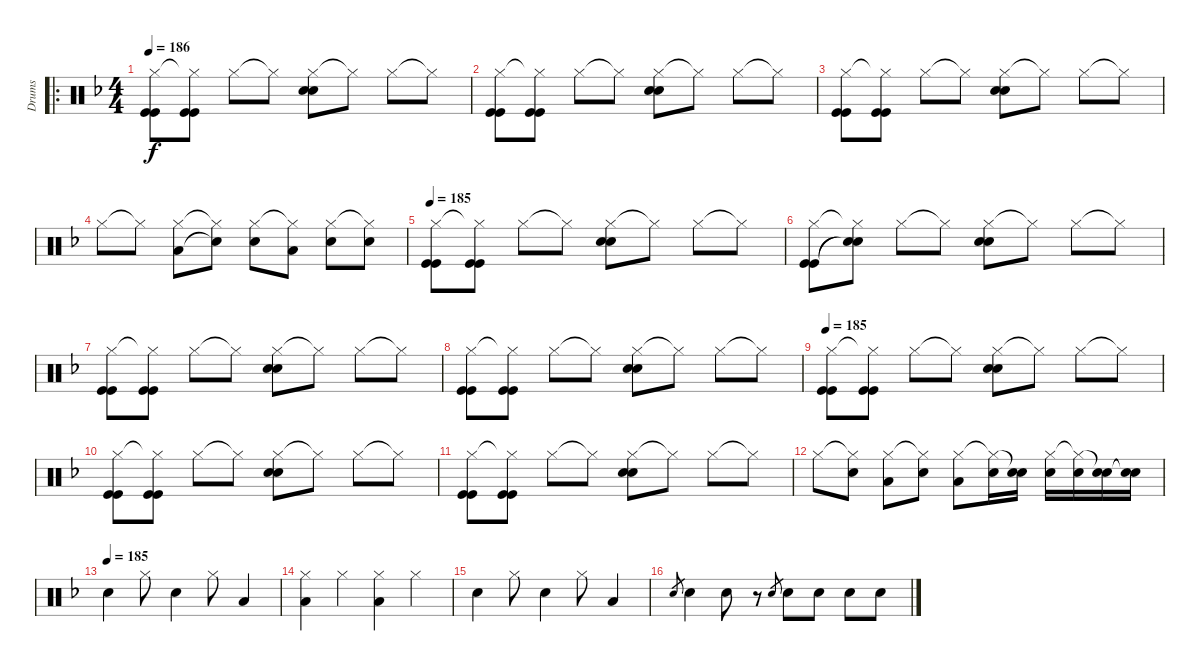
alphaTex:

\track ("Drums" "Drums") {instrument percussion}
\staff {score}
\articulation defaults
\ro
\ts (4 4)
\tempo 186
\clef neutral
\ks f
("Hi-Hat (closed)" "Kick (hit)" "Kick (hit)").8{dy f} ("Hi-Hat (closed)"{t} "Kick (hit)" "Kick (hit)").8 "Hi-Hat (closed)".8 "Hi-Hat (closed)"{t}.8 ("Hi-Hat (closed)" "Snare (hit) 2" "Snare (hit) 2").8 "Hi-Hat (closed)"{t}.8 "Hi-Hat (closed)".8 "Hi-Hat (closed)"{t}.8 |
("Hi-Hat (closed)" "Kick (hit)" "Kick (hit)").8 ("Hi-Hat (closed)"{t} "Kick (hit)" "Kick (hit)").8 "Hi-Hat (closed)".8 "Hi-Hat (closed)"{t}.8 ("Hi-Hat (closed)" "Snare (hit) 2" "Snare (hit) 2").8 "Hi-Hat (closed)"{t}.8 "Hi-Hat (closed)".8 "Hi-Hat (closed)"{t}.8 |
("Hi-Hat (closed)" "Kick (hit)" "Kick (hit)").8 ("Hi-Hat (closed)"{t} "Kick (hit)" "Kick (hit)").8 "Hi-Hat (closed)".8 "Hi-Hat (closed)"{t}.8 ("Hi-Hat (closed)" "Snare (hit) 2" "Snare (hit) 2").8 "Hi-Hat (closed)"{t}.8 "Hi-Hat (closed)".8 "Hi-Hat (closed)"{t}.8 |
"Hi-Hat (closed)".8 "Hi-Hat (closed)"{t}.8 ("Hi-Hat (closed)" "Low Floor Tom (hit)").8 ("Hi-Hat (closed)"{t} "Snare (hit)"{t}).8 ("Hi-Hat (closed)" "Snare (hit) 2").8 ("Hi-Hat (closed)"{t} "Low Floor Tom (hit)").8 ("Hi-Hat (closed)" "Electric Snare (hit)").8 ("Hi-Hat (closed)"{t} "Electric Snare (hit)").8 |
\tempo 185
("Hi-Hat (closed)" "Kick (hit)" "Kick (hit)").8 ("Hi-Hat (closed)"{t} "Kick (hit)" "Kick (hit)").8 "Hi-Hat (closed)".8 "Hi-Hat (closed)"{t}.8 ("Hi-Hat (closed)" "Snare (hit) 2" "Snare (hit) 2").8 "Hi-Hat (closed)"{t}.8 "Hi-Hat (closed)".8 "Hi-Hat (closed)"{t}.8 |
("Hi-Hat (closed)" "Kick (hit)" "Kick (hit)").8 ("Hi-Hat (closed)"{t} "Snare (hit)"{t} "Snare (hit)"{t}).8 "Hi-Hat (closed)".8 "Hi-Hat (closed)"{t}.8 ("Hi-Hat (closed)" "Snare (hit) 2" "Snare (hit) 2").8 "Hi-Hat (closed)"{t}.8 "Hi-Hat (closed)".8 "Hi-Hat (closed)"{t}.8 |
("Hi-Hat (closed)" "Kick (hit)" "Kick (hit)").8 ("Hi-Hat (closed)"{t} "Kick (hit)" "Kick (hit)").8 "Hi-Hat (closed)".8 "Hi-Hat (closed)"{t}.8 ("Hi-Hat (closed)" "Snare (hit) 2" "Snare (hit) 2").8 "Hi-Hat (closed)"{t}.8 "Hi-Hat (closed)".8 "Hi-Hat (closed)"{t}.8 |
("Hi-Hat (closed)" "Kick (hit)" "Kick (hit)").8 ("Hi-Hat (closed)"{t} "Kick (hit)" "Kick (hit)").8 "Hi-Hat (closed)".8 "Hi-Hat (closed)"{t}.8 ("Hi-Hat (closed)" "Snare (hit) 2" "Snare (hit) 2").8 "Hi-Hat (closed)"{t}.8 "Hi-Hat (closed)".8 "Hi-Hat (closed)"{t}.8 |
\tempo 185
("Hi-Hat (closed)" "Kick (hit)" "Kick (hit)").8 ("Hi-Hat (closed)"{t} "Kick (hit)" "Kick (hit)").8 "Hi-Hat (closed)".8 "Hi-Hat (closed)"{t}.8 ("Hi-Hat (closed)" "Snare (hit) 2" "Snare (hit) 2").8 "Hi-Hat (closed)"{t}.8 "Hi-Hat (closed)".8 "Hi-Hat (closed)"{t}.8 |
("Hi-Hat (closed)" "Kick (hit)" "Kick (hit)").8 ("Hi-Hat (closed)"{t} "Kick (hit)" "Kick (hit)").8 "Hi-Hat (closed)".8 "Hi-Hat (closed)"{t}.8 ("Hi-Hat (closed)" "Snare (hit) 2" "Snare (hit) 2").8 "Hi-Hat (closed)"{t}.8 "Hi-Hat (closed)".8 "Hi-Hat (closed)"{t}.8 |
("Hi-Hat (closed)" "Kick (hit)" "Kick (hit)").8 ("Hi-Hat (closed)"{t} "Kick (hit)" "Kick (hit)").8 "Hi-Hat (closed)".8 "Hi-Hat (closed)"{t}.8 ("Hi-Hat (closed)" "Snare (hit) 2" "Snare (hit) 2").8 "Hi-Hat (closed)"{t}.8 "Hi-Hat (closed)".8 "Hi-Hat (closed)"{t}.8 |
"Hi-Hat (closed)".8 ("Hi-Hat (closed)"{t} "Snare (hit) 2").8 ("Hi-Hat (closed)" "Low Floor Tom (hit)").8 ("Hi-Hat (closed)"{t} "Snare (hit) 2").8 ("Hi-Hat (closed)" "Low Floor Tom (hit)").8 ("Hi-Hat (closed)"{t} "Snare (hit) 2").16 ("Snare (hit)"{t} "Snare (hit) 2").16 ("Hi-Hat (closed)" "Snare (hit) 2").16 ("Hi-Hat (closed)"{t} "Snare (hit) 2").16 ("Snare (hit)"{t} "Snare (hit) 2").16 ("Snare (hit)"{t} "Snare (hit) 2"{t}).16 |
\tempo (185)
"Snare (hit) 2".4 "Hi-Hat (closed)".8 "Snare (hit) 2".4 "Hi-Hat (closed)".8 "Low Floor Tom (hit)".4 |
("Hi-Hat (closed)" "Low Floor Tom (hit)").4 "Hi-Hat (closed)".4 ("Hi-Hat (closed)" "Low Floor Tom (hit)").4 "Hi-Hat (closed)".4 |
"Snare (hit) 2".4 "Hi-Hat (closed)".8 "Snare (hit) 2".4 "Hi-Hat (closed)".8 "Low Floor Tom (hit)".4 |
"Snare (hit) 2".8{gr} "Snare (hit) 2".4 "Snare (hit) 2".8 r.8 "Snare (hit) 2".8{gr} "Snare (hit) 2".8 "Snare (hit) 2".8 "Snare (hit) 2".8 "Snare (hit) 2".8
